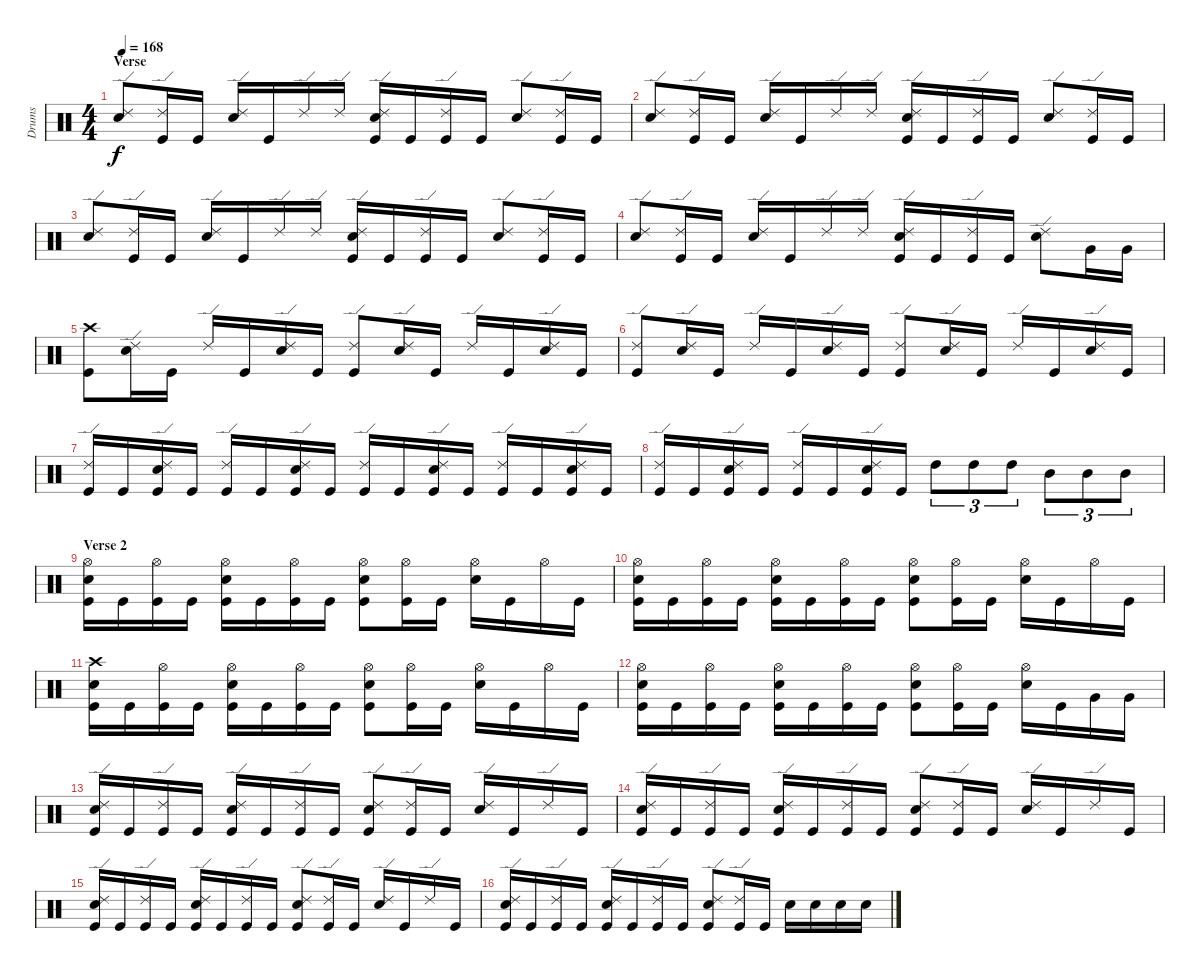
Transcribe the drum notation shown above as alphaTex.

\track ("Drums" "Drums") {instrument percussion}
\staff {score}
\articulation defaults
\ts (4 4)
\section ("" "Verse")
\tempo 168
\clef neutral
\ks c
("Ride (edge) 2" "Electric Snare (hit)").8{dy f} ("Ride (edge) 2" "Kick (hit)").16 "Kick (hit)".16 ("Ride (edge) 2" "Electric Snare (hit)").16 "Kick (hit)".16 "Ride (edge) 2".16 "Ride (edge) 2".16 ("Ride (edge) 2" "Electric Snare (hit)" "Kick (hit)").16 "Kick (hit)".16 ("Ride (edge) 2" "Kick (hit)").16 "Kick (hit)".16 ("Ride (edge) 2" "Electric Snare (hit)").8 ("Ride (edge) 2" "Kick (hit)").16 "Kick (hit)".16 |
("Ride (edge) 2" "Electric Snare (hit)").8 ("Ride (edge) 2" "Kick (hit)").16 "Kick (hit)".16 ("Ride (edge) 2" "Electric Snare (hit)").16 "Kick (hit)".16 "Ride (edge) 2".16 "Ride (edge) 2".16 ("Ride (edge) 2" "Electric Snare (hit)" "Kick (hit)").16 "Kick (hit)".16 ("Ride (edge) 2" "Kick (hit)").16 "Kick (hit)".16 ("Ride (edge) 2" "Electric Snare (hit)").8 ("Ride (edge) 2" "Kick (hit)").16 "Kick (hit)".16 |
("Ride (edge) 2" "Electric Snare (hit)").8 ("Ride (edge) 2" "Kick (hit)").16 "Kick (hit)".16 ("Ride (edge) 2" "Electric Snare (hit)").16 "Kick (hit)".16 "Ride (edge) 2".16 "Ride (edge) 2".16 ("Ride (edge) 2" "Electric Snare (hit)" "Kick (hit)").16 "Kick (hit)".16 ("Ride (edge) 2" "Kick (hit)").16 "Kick (hit)".16 ("Ride (edge) 2" "Electric Snare (hit)").8 ("Ride (edge) 2" "Kick (hit)").16 "Kick (hit)".16 |
("Ride (edge) 2" "Electric Snare (hit)").8 ("Ride (edge) 2" "Kick (hit)").16 "Kick (hit)".16 ("Ride (edge) 2" "Electric Snare (hit)").16 "Kick (hit)".16 "Ride (edge) 2".16 "Ride (edge) 2".16 ("Ride (edge) 2" "Electric Snare (hit)" "Kick (hit)").16 "Kick (hit)".16 ("Ride (edge) 2" "Kick (hit)").16 "Kick (hit)".16 ("Ride (edge) 2" "Electric Snare (hit)").8 "Very Low Tom (hit)".16 "Very Low Tom (hit)".16 |
("Crash high (hit)" "Kick (hit)").8 ("Ride (edge) 2" "Electric Snare (hit)").16 "Kick (hit)".16 "Ride (edge) 2".16 "Kick (hit)".16 ("Ride (edge) 2" "Electric Snare (hit)").16 "Kick (hit)".16 ("Ride (edge) 2" "Kick (hit)").8 ("Ride (edge) 2" "Electric Snare (hit)").16 "Kick (hit)".16 "Ride (edge) 2".16 "Kick (hit)".16 ("Ride (edge) 2" "Electric Snare (hit)").16 "Kick (hit)".16 |
("Ride (edge) 2" "Kick (hit)").8 ("Ride (edge) 2" "Electric Snare (hit)").16 "Kick (hit)".16 "Ride (edge) 2".16 "Kick (hit)".16 ("Ride (edge) 2" "Electric Snare (hit)").16 "Kick (hit)".16 ("Ride (edge) 2" "Kick (hit)").8 ("Ride (edge) 2" "Electric Snare (hit)").16 "Kick (hit)".16 "Ride (edge) 2".16 "Kick (hit)".16 ("Ride (edge) 2" "Electric Snare (hit)").16 "Kick (hit)".16 |
("Ride (edge) 2" "Kick (hit)").16 "Kick (hit)".16 ("Ride (edge) 2" "Electric Snare (hit)" "Kick (hit)").16 "Kick (hit)".16 ("Ride (edge) 2" "Kick (hit)").16 "Kick (hit)".16 ("Ride (edge) 2" "Electric Snare (hit)" "Kick (hit)").16 "Kick (hit)".16 ("Ride (edge) 2" "Kick (hit)").16 "Kick (hit)".16 ("Ride (edge) 2" "Electric Snare (hit)" "Kick (hit)").16 "Kick (hit)".16 ("Ride (edge) 2" "Kick (hit)").16 "Kick (hit)".16 ("Ride (edge) 2" "Electric Snare (hit)" "Kick (hit)").16 "Kick (hit)".16 |
("Ride (edge) 2" "Kick (hit)").16 "Kick (hit)".16 ("Ride (edge) 2" "Electric Snare (hit)" "Kick (hit)").16 "Kick (hit)".16 ("Ride (edge) 2" "Kick (hit)").16 "Kick (hit)".16 ("Ride (edge) 2" "Electric Snare (hit)" "Kick (hit)").16 "Kick (hit)".16 "High Tom (hit)".8{tu (3 2)} "High Tom (hit)".8{tu (3 2)} "High Tom (hit)".8{tu (3 2)} "Mid Tom (hit)".8{tu (3 2)} "Mid Tom (hit)".8{tu (3 2)} "Mid Tom (hit)".8{tu (3 2)} |
\section ("" "Verse 2")
("Hi-Hat (open)" "Electric Snare (hit)" "Kick (hit)").16 "Kick (hit)".16 ("Hi-Hat (open)" "Kick (hit)").16 "Kick (hit)".16 ("Hi-Hat (open)" "Electric Snare (hit)" "Kick (hit)").16 "Kick (hit)".16 ("Hi-Hat (open)" "Kick (hit)").16 "Kick (hit)".16 ("Hi-Hat (open)" "Electric Snare (hit)" "Kick (hit)").8 ("Hi-Hat (open)" "Kick (hit)").16 "Kick (hit)".16 ("Hi-Hat (open)" "Electric Snare (hit)").16 "Kick (hit)".16 "Hi-Hat (open)".16 "Kick (hit)".16 |
("Hi-Hat (open)" "Electric Snare (hit)" "Kick (hit)").16 "Kick (hit)".16 ("Hi-Hat (open)" "Kick (hit)").16 "Kick (hit)".16 ("Hi-Hat (open)" "Electric Snare (hit)" "Kick (hit)").16 "Kick (hit)".16 ("Hi-Hat (open)" "Kick (hit)").16 "Kick (hit)".16 ("Hi-Hat (open)" "Electric Snare (hit)" "Kick (hit)").8 ("Hi-Hat (open)" "Kick (hit)").16 "Kick (hit)".16 ("Hi-Hat (open)" "Electric Snare (hit)").16 "Kick (hit)".16 "Hi-Hat (open)".16 "Kick (hit)".16 |
("Crash high (hit)" "Electric Snare (hit)" "Kick (hit)").16 "Kick (hit)".16 ("Hi-Hat (open)" "Kick (hit)").16 "Kick (hit)".16 ("Hi-Hat (open)" "Electric Snare (hit)" "Kick (hit)").16 "Kick (hit)".16 ("Hi-Hat (open)" "Kick (hit)").16 "Kick (hit)".16 ("Hi-Hat (open)" "Electric Snare (hit)" "Kick (hit)").8 ("Hi-Hat (open)" "Kick (hit)").16 "Kick (hit)".16 ("Hi-Hat (open)" "Electric Snare (hit)").16 "Kick (hit)".16 "Hi-Hat (open)".16 "Kick (hit)".16 |
("Hi-Hat (open)" "Electric Snare (hit)" "Kick (hit)").16 "Kick (hit)".16 ("Hi-Hat (open)" "Kick (hit)").16 "Kick (hit)".16 ("Hi-Hat (open)" "Electric Snare (hit)" "Kick (hit)").16 "Kick (hit)".16 ("Hi-Hat (open)" "Kick (hit)").16 "Kick (hit)".16 ("Hi-Hat (open)" "Electric Snare (hit)" "Kick (hit)").8 ("Hi-Hat (open)" "Kick (hit)").16 "Kick (hit)".16 ("Hi-Hat (open)" "Electric Snare (hit)").16 "Kick (hit)".16 "Very Low Tom (hit)".16 "Very Low Tom (hit)".16 |
("Ride (edge) 2" "Electric Snare (hit)" "Kick (hit)").16 "Kick (hit)".16 ("Ride (edge) 2" "Kick (hit)").16 "Kick (hit)".16 ("Ride (edge) 2" "Electric Snare (hit)" "Kick (hit)").16 "Kick (hit)".16 ("Ride (edge) 2" "Kick (hit)").16 "Kick (hit)".16 ("Ride (edge) 2" "Electric Snare (hit)" "Kick (hit)").8 ("Ride (edge) 2" "Kick (hit)").16 "Kick (hit)".16 ("Ride (edge) 2" "Electric Snare (hit)").16 "Kick (hit)".16 "Ride (edge) 2".16 "Kick (hit)".16 |
("Ride (edge) 2" "Electric Snare (hit)" "Kick (hit)").16 "Kick (hit)".16 ("Ride (edge) 2" "Kick (hit)").16 "Kick (hit)".16 ("Ride (edge) 2" "Electric Snare (hit)" "Kick (hit)").16 "Kick (hit)".16 ("Ride (edge) 2" "Kick (hit)").16 "Kick (hit)".16 ("Ride (edge) 2" "Electric Snare (hit)" "Kick (hit)").8 ("Ride (edge) 2" "Kick (hit)").16 "Kick (hit)".16 ("Ride (edge) 2" "Electric Snare (hit)").16 "Kick (hit)".16 "Ride (edge) 2".16 "Kick (hit)".16 |
("Ride (edge) 2" "Electric Snare (hit)" "Kick (hit)").16 "Kick (hit)".16 ("Ride (edge) 2" "Kick (hit)").16 "Kick (hit)".16 ("Ride (edge) 2" "Electric Snare (hit)" "Kick (hit)").16 "Kick (hit)".16 ("Ride (edge) 2" "Kick (hit)").16 "Kick (hit)".16 ("Ride (edge) 2" "Electric Snare (hit)" "Kick (hit)").8 ("Ride (edge) 2" "Kick (hit)").16 "Kick (hit)".16 ("Ride (edge) 2" "Electric Snare (hit)").16 "Kick (hit)".16 "Ride (edge) 2".16 "Kick (hit)".16 |
("Ride (edge) 2" "Electric Snare (hit)" "Kick (hit)").16 "Kick (hit)".16 ("Ride (edge) 2" "Kick (hit)").16 "Kick (hit)".16 ("Ride (edge) 2" "Electric Snare (hit)" "Kick (hit)").16 "Kick (hit)".16 ("Ride (edge) 2" "Kick (hit)").16 "Kick (hit)".16 ("Ride (edge) 2" "Electric Snare (hit)" "Kick (hit)").8 ("Ride (edge) 2" "Kick (hit)").16 "Kick (hit)".16 "Electric Snare (hit)".16 "Electric Snare (hit)".16 "Electric Snare (hit)".16 "Electric Snare (hit)".16
